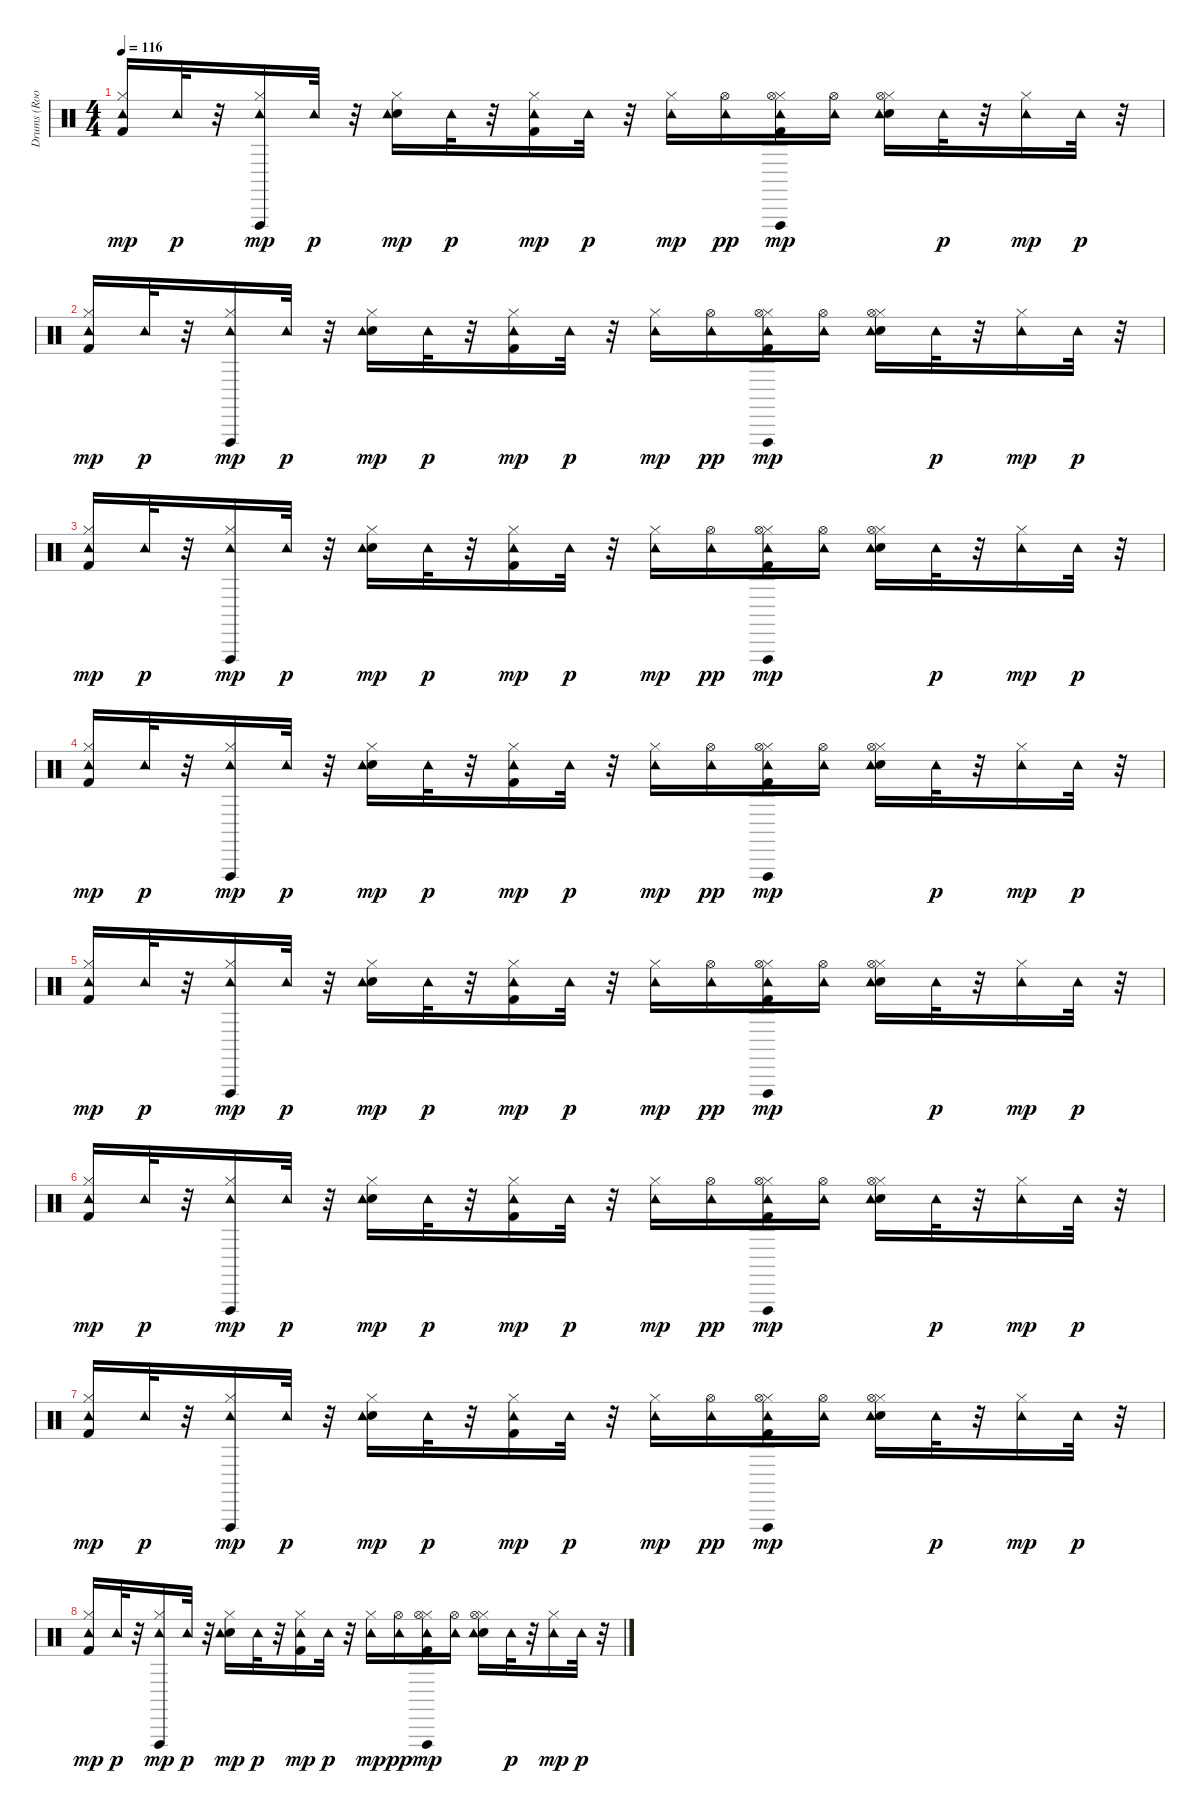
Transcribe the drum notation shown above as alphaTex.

\track ("Drums (Room Kit)    " "Drums (Roo") {instrument percussion}
\staff {score}
\articulation defaults
\ts (4 4)
\tempo 116
\clef neutral
\ks c
("Hi-Hat (closed)" "Kick (hit) 2" "Tambourine (hit)").16{dy mp} "Tambourine (hit)".32{dy p} r.32 ("Hi-Hat (closed)" "Tambourine (hit)" "Vibraslap (hit)").16{dy mp} "Tambourine (hit)".32{dy p} r.32 ("Hi-Hat (closed)" "Snare (hit) 2" "Tambourine (hit)").16{dy mp} "Tambourine (hit)".32{dy p} r.32 ("Hi-Hat (closed)" "Kick (hit) 2" "Tambourine (hit)").16{dy mp} "Tambourine (hit)".32{dy p} r.32 ("Hi-Hat (closed)" "Tambourine (hit)").16{dy mp} ("Tambourine (hit)" "Hi-Hat (open)").16{dy pp} ("Hi-Hat (closed)" "Kick (hit) 2" "Tambourine (hit)" "Hi-Hat (open)" "Vibraslap (hit)").16{dy mp} ("Tambourine (hit)" "Hi-Hat (open)").16 ("Hi-Hat (closed)" "Snare (hit) 2" "Tambourine (hit)" "Hi-Hat (open)").16 "Tambourine (hit)".32{dy p} r.32 ("Hi-Hat (closed)" "Tambourine (hit)").16{dy mp} "Tambourine (hit)".32{dy p} r.32 |
("Kick (hit) 2" "Hi-Hat (closed)" "Tambourine (hit)").16{dy mp} "Tambourine (hit)".32{dy p} r.32 ("Hi-Hat (closed)" "Tambourine (hit)" "Vibraslap (hit)").16{dy mp} "Tambourine (hit)".32{dy p} r.32 ("Snare (hit) 2" "Hi-Hat (closed)" "Tambourine (hit)").16{dy mp} "Tambourine (hit)".32{dy p} r.32 ("Kick (hit) 2" "Hi-Hat (closed)" "Tambourine (hit)").16{dy mp} "Tambourine (hit)".32{dy p} r.32 ("Hi-Hat (closed)" "Tambourine (hit)").16{dy mp} ("Tambourine (hit)" "Hi-Hat (open)").16{dy pp} ("Kick (hit) 2" "Hi-Hat (closed)" "Tambourine (hit)" "Hi-Hat (open)" "Vibraslap (hit)").16{dy mp} ("Tambourine (hit)" "Hi-Hat (open)").16 ("Snare (hit) 2" "Hi-Hat (closed)" "Tambourine (hit)" "Hi-Hat (open)").16 "Tambourine (hit)".32{dy p} r.32 ("Hi-Hat (closed)" "Tambourine (hit)").16{dy mp} "Tambourine (hit)".32{dy p} r.32 |
("Hi-Hat (closed)" "Kick (hit) 2" "Tambourine (hit)").16{dy mp} "Tambourine (hit)".32{dy p} r.32 ("Hi-Hat (closed)" "Tambourine (hit)" "Vibraslap (hit)").16{dy mp} "Tambourine (hit)".32{dy p} r.32 ("Hi-Hat (closed)" "Snare (hit) 2" "Tambourine (hit)").16{dy mp} "Tambourine (hit)".32{dy p} r.32 ("Hi-Hat (closed)" "Kick (hit) 2" "Tambourine (hit)").16{dy mp} "Tambourine (hit)".32{dy p} r.32 ("Hi-Hat (closed)" "Tambourine (hit)").16{dy mp} ("Tambourine (hit)" "Hi-Hat (open)").16{dy pp} ("Hi-Hat (closed)" "Kick (hit) 2" "Tambourine (hit)" "Hi-Hat (open)" "Vibraslap (hit)").16{dy mp} ("Tambourine (hit)" "Hi-Hat (open)").16 ("Hi-Hat (closed)" "Snare (hit) 2" "Tambourine (hit)" "Hi-Hat (open)").16 "Tambourine (hit)".32{dy p} r.32 ("Hi-Hat (closed)" "Tambourine (hit)").16{dy mp} "Tambourine (hit)".32{dy p} r.32 |
("Kick (hit) 2" "Hi-Hat (closed)" "Tambourine (hit)").16{dy mp} "Tambourine (hit)".32{dy p} r.32 ("Hi-Hat (closed)" "Tambourine (hit)" "Vibraslap (hit)").16{dy mp} "Tambourine (hit)".32{dy p} r.32 ("Snare (hit) 2" "Hi-Hat (closed)" "Tambourine (hit)").16{dy mp} "Tambourine (hit)".32{dy p} r.32 ("Kick (hit) 2" "Hi-Hat (closed)" "Tambourine (hit)").16{dy mp} "Tambourine (hit)".32{dy p} r.32 ("Hi-Hat (closed)" "Tambourine (hit)").16{dy mp} ("Tambourine (hit)" "Hi-Hat (open)").16{dy pp} ("Kick (hit) 2" "Hi-Hat (closed)" "Tambourine (hit)" "Hi-Hat (open)" "Vibraslap (hit)").16{dy mp} ("Tambourine (hit)" "Hi-Hat (open)").16 ("Snare (hit) 2" "Hi-Hat (closed)" "Tambourine (hit)" "Hi-Hat (open)").16 "Tambourine (hit)".32{dy p} r.32 ("Hi-Hat (closed)" "Tambourine (hit)").16{dy mp} "Tambourine (hit)".32{dy p} r.32 |
("Hi-Hat (closed)" "Kick (hit) 2" "Tambourine (hit)").16{dy mp} "Tambourine (hit)".32{dy p} r.32 ("Hi-Hat (closed)" "Tambourine (hit)" "Vibraslap (hit)").16{dy mp} "Tambourine (hit)".32{dy p} r.32 ("Hi-Hat (closed)" "Snare (hit) 2" "Tambourine (hit)").16{dy mp} "Tambourine (hit)".32{dy p} r.32 ("Hi-Hat (closed)" "Kick (hit) 2" "Tambourine (hit)").16{dy mp} "Tambourine (hit)".32{dy p} r.32 ("Hi-Hat (closed)" "Tambourine (hit)").16{dy mp} ("Tambourine (hit)" "Hi-Hat (open)").16{dy pp} ("Hi-Hat (closed)" "Kick (hit) 2" "Tambourine (hit)" "Hi-Hat (open)" "Vibraslap (hit)").16{dy mp} ("Tambourine (hit)" "Hi-Hat (open)").16 ("Hi-Hat (closed)" "Snare (hit) 2" "Tambourine (hit)" "Hi-Hat (open)").16 "Tambourine (hit)".32{dy p} r.32 ("Hi-Hat (closed)" "Tambourine (hit)").16{dy mp} "Tambourine (hit)".32{dy p} r.32 |
("Kick (hit) 2" "Hi-Hat (closed)" "Tambourine (hit)").16{dy mp} "Tambourine (hit)".32{dy p} r.32 ("Hi-Hat (closed)" "Tambourine (hit)" "Vibraslap (hit)").16{dy mp} "Tambourine (hit)".32{dy p} r.32 ("Snare (hit) 2" "Hi-Hat (closed)" "Tambourine (hit)").16{dy mp} "Tambourine (hit)".32{dy p} r.32 ("Kick (hit) 2" "Hi-Hat (closed)" "Tambourine (hit)").16{dy mp} "Tambourine (hit)".32{dy p} r.32 ("Hi-Hat (closed)" "Tambourine (hit)").16{dy mp} ("Tambourine (hit)" "Hi-Hat (open)").16{dy pp} ("Kick (hit) 2" "Hi-Hat (closed)" "Tambourine (hit)" "Hi-Hat (open)" "Vibraslap (hit)").16{dy mp} ("Tambourine (hit)" "Hi-Hat (open)").16 ("Snare (hit) 2" "Hi-Hat (closed)" "Tambourine (hit)" "Hi-Hat (open)").16 "Tambourine (hit)".32{dy p} r.32 ("Hi-Hat (closed)" "Tambourine (hit)").16{dy mp} "Tambourine (hit)".32{dy p} r.32 |
("Hi-Hat (closed)" "Kick (hit) 2" "Tambourine (hit)").16{dy mp} "Tambourine (hit)".32{dy p} r.32 ("Hi-Hat (closed)" "Tambourine (hit)" "Vibraslap (hit)").16{dy mp} "Tambourine (hit)".32{dy p} r.32 ("Hi-Hat (closed)" "Snare (hit) 2" "Tambourine (hit)").16{dy mp} "Tambourine (hit)".32{dy p} r.32 ("Hi-Hat (closed)" "Kick (hit) 2" "Tambourine (hit)").16{dy mp} "Tambourine (hit)".32{dy p} r.32 ("Hi-Hat (closed)" "Tambourine (hit)").16{dy mp} ("Tambourine (hit)" "Hi-Hat (open)").16{dy pp} ("Hi-Hat (closed)" "Kick (hit) 2" "Tambourine (hit)" "Hi-Hat (open)" "Vibraslap (hit)").16{dy mp} ("Tambourine (hit)" "Hi-Hat (open)").16 ("Hi-Hat (closed)" "Snare (hit) 2" "Tambourine (hit)" "Hi-Hat (open)").16 "Tambourine (hit)".32{dy p} r.32 ("Hi-Hat (closed)" "Tambourine (hit)").16{dy mp} "Tambourine (hit)".32{dy p} r.32 |
("Kick (hit) 2" "Hi-Hat (closed)" "Tambourine (hit)").16{dy mp volume 15} "Tambourine (hit)".32{dy p} r.32 ("Hi-Hat (closed)" "Tambourine (hit)" "Vibraslap (hit)").16{dy mp} "Tambourine (hit)".32{dy p} r.32 ("Snare (hit) 2" "Hi-Hat (closed)" "Tambourine (hit)").16{dy mp volume 14} "Tambourine (hit)".32{dy p} r.32 ("Kick (hit) 2" "Hi-Hat (closed)" "Tambourine (hit)").16{dy mp} "Tambourine (hit)".32{dy p} r.32 ("Hi-Hat (closed)" "Tambourine (hit)").16{dy mp volume 14} ("Tambourine (hit)" "Hi-Hat (open)").16{dy pp} ("Kick (hit) 2" "Hi-Hat (closed)" "Tambourine (hit)" "Hi-Hat (open)" "Vibraslap (hit)").16{dy mp} ("Tambourine (hit)" "Hi-Hat (open)").16 ("Snare (hit) 2" "Hi-Hat (closed)" "Tambourine (hit)" "Hi-Hat (open)").16{volume 13} "Tambourine (hit)".32{dy p} r.32 ("Hi-Hat (closed)" "Tambourine (hit)").16{dy mp} "Tambourine (hit)".32{dy p} r.32
